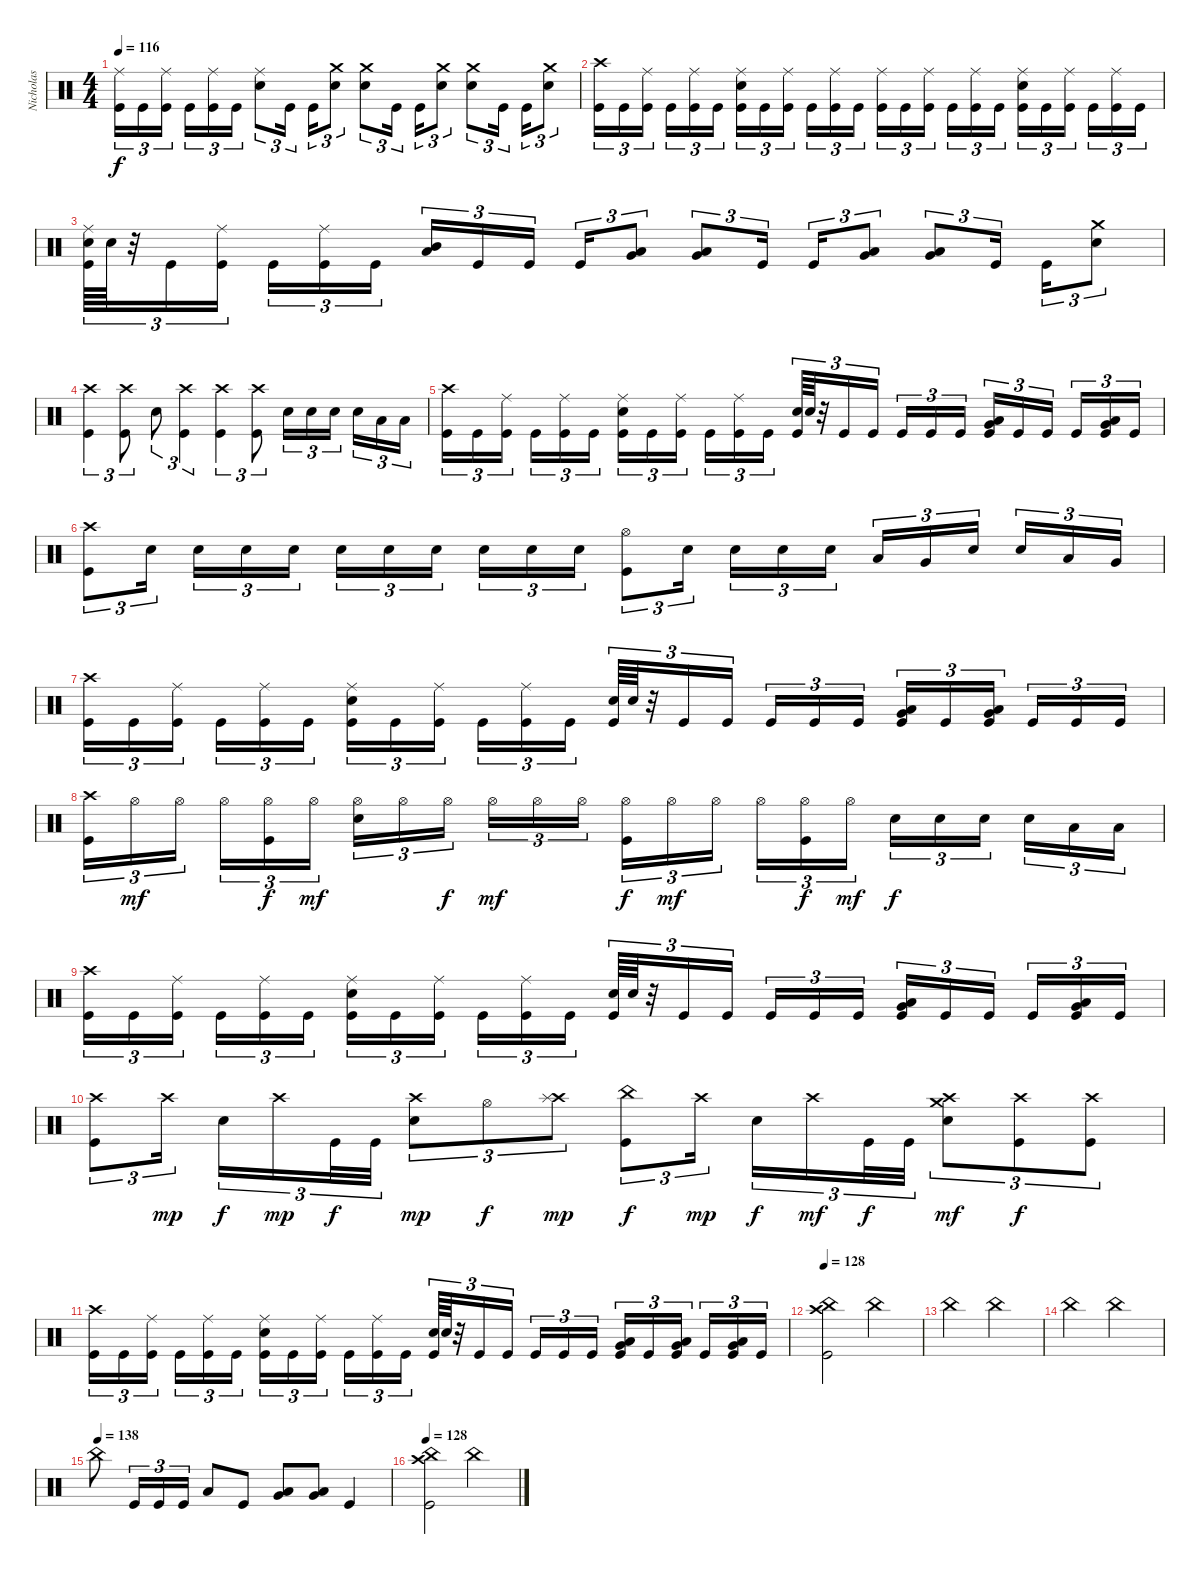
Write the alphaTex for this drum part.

\track ("Nicholas" "Nicholas") {instrument percussion}
\staff {score}
\articulation defaults
\ts (4 4)
\tempo 116
\clef neutral
\ks c
("Ride (middle)" "Kick (hit)").16{tu (3 2) dy f} "Kick (hit)".16{tu (3 2)} ("Ride (middle)" "Kick (hit)").16{tu (3 2)} "Kick (hit)".16{tu (3 2)} ("Ride (middle)" "Kick (hit)").16{tu (3 2)} "Kick (hit)".16{tu (3 2)} ("Ride (middle)" "Electric Snare (hit)").8{tu (3 2)} "Kick (hit)".16{tu (3 2)} "Kick (hit)".16{tu (3 2)} ("Crash medium (hit)" "Electric Snare (hit)").8{tu (3 2)} ("Crash medium (hit)" "Electric Snare (hit)").8{tu (3 2)} "Kick (hit)".16{tu (3 2)} "Kick (hit)".16{tu (3 2)} ("Crash medium (hit)" "Electric Snare (hit)").8{tu (3 2)} ("Crash medium (hit)" "Electric Snare (hit)").8{tu (3 2)} "Kick (hit)".16{tu (3 2)} "Kick (hit)".16{tu (3 2)} ("Crash medium (hit)" "Electric Snare (hit)").8{tu (3 2)} |
("Crash high (hit)" "Kick (hit)").16{tu (3 2)} "Kick (hit)".16{tu (3 2)} ("Ride (middle)" "Kick (hit)").16{tu (3 2)} "Kick (hit)".16{tu (3 2)} ("Ride (middle)" "Kick (hit)").16{tu (3 2)} "Kick (hit)".16{tu (3 2)} ("Ride (middle)" "Electric Snare (hit)" "Kick (hit)").16{tu (3 2)} "Kick (hit)".16{tu (3 2)} ("Ride (middle)" "Kick (hit)").16{tu (3 2)} "Kick (hit)".16{tu (3 2)} ("Ride (middle)" "Kick (hit)").16{tu (3 2)} "Kick (hit)".16{tu (3 2)} ("Ride (middle)" "Kick (hit)").16{tu (3 2)} "Kick (hit)".16{tu (3 2)} ("Ride (middle)" "Kick (hit)").16{tu (3 2)} "Kick (hit)".16{tu (3 2)} ("Ride (middle)" "Kick (hit)").16{tu (3 2)} "Kick (hit)".16{tu (3 2)} ("Ride (middle)" "Electric Snare (hit)" "Kick (hit)").16{tu (3 2)} "Kick (hit)".16{tu (3 2)} ("Ride (middle)" "Kick (hit)").16{tu (3 2)} "Kick (hit)".16{tu (3 2)} ("Ride (middle)" "Kick (hit)").16{tu (3 2)} "Kick (hit)".16{tu (3 2)} |
("Ride (middle)" "Electric Snare (hit)" "Kick (hit)").64{tu (3 2)} "Electric Snare (hit)".64{tu (3 2)} r.32{tu (3 2)} "Kick (hit)".16{tu (3 2)} ("Ride (middle)" "Kick (hit)").16{tu (3 2)} "Kick (hit)".16{tu (3 2)} ("Ride (middle)" "Kick (hit)").16{tu (3 2)} "Kick (hit)".16{tu (3 2)} ("Mid Tom (hit)" "Low Tom (hit)").16{tu (3 2) bd 60} "Kick (hit)".16{tu (3 2)} "Kick (hit)".16{tu (3 2)} "Kick (hit)".16{tu (3 2)} ("Low Tom (hit)" "Very Low Tom (hit)").8{tu (3 2) bu 60} ("Low Tom (hit)" "Very Low Tom (hit)").8{tu (3 2) bu 60} "Kick (hit)".16{tu (3 2)} "Kick (hit)".16{tu (3 2)} ("Low Tom (hit)" "Very Low Tom (hit)").8{tu (3 2) bu 60} ("Low Tom (hit)" "Very Low Tom (hit)").8{tu (3 2) bu 60} "Kick (hit)".16{tu (3 2)} "Kick (hit)".16{tu (3 2)} ("Crash medium (hit)" "Electric Snare (hit)").8{tu (3 2)} |
("Crash high (hit)" "Kick (hit)").4{tu (3 2)} ("Crash high (hit)" "Kick (hit)").8{tu (3 2)} "Electric Snare (hit)".8{tu (3 2)} ("Crash high (hit)" "Kick (hit)").4{tu (3 2)} ("Crash high (hit)" "Kick (hit)").4{tu (3 2)} ("Crash high (hit)" "Kick (hit)").8{tu (3 2)} "Electric Snare (hit)".16{tu (3 2)} "Electric Snare (hit)".16{tu (3 2)} "Electric Snare (hit)".16{tu (3 2)} "Electric Snare (hit)".16{tu (3 2)} "Low Tom (hit)".16{tu (3 2)} "Low Tom (hit)".16{tu (3 2)} |
("Crash high (hit)" "Kick (hit)").16{tu (3 2)} "Kick (hit)".16{tu (3 2)} ("Ride (middle)" "Kick (hit)").16{tu (3 2)} "Kick (hit)".16{tu (3 2)} ("Ride (middle)" "Kick (hit)").16{tu (3 2)} "Kick (hit)".16{tu (3 2)} ("Ride (middle)" "Electric Snare (hit)" "Kick (hit)").16{tu (3 2)} "Kick (hit)".16{tu (3 2)} ("Ride (middle)" "Kick (hit)").16{tu (3 2)} "Kick (hit)".16{tu (3 2)} ("Ride (middle)" "Kick (hit)").16{tu (3 2)} "Kick (hit)".16{tu (3 2)} ("Electric Snare (hit)" "Kick (hit)").64{tu (3 2)} "Electric Snare (hit)".64{tu (3 2)} r.32{tu (3 2)} "Kick (hit)".16{tu (3 2)} "Kick (hit)".16{tu (3 2)} "Kick (hit)".16{tu (3 2)} "Kick (hit)".16{tu (3 2)} "Kick (hit)".16{tu (3 2)} ("Low Tom (hit)" "Very Low Tom (hit)" "Kick (hit)").16{tu (3 2) bd 60} "Kick (hit)".16{tu (3 2)} "Kick (hit)".16{tu (3 2)} "Kick (hit)".16{tu (3 2)} ("Low Tom (hit)" "Very Low Tom (hit)" "Kick (hit)").16{tu (3 2) bd 60} "Kick (hit)".16{tu (3 2)} |
("Crash high (hit)" "Kick (hit)").8{tu (3 2)} "Electric Snare (hit)".16{tu (3 2)} "Electric Snare (hit)".16{tu (3 2)} "Electric Snare (hit)".16{tu (3 2)} "Electric Snare (hit)".16{tu (3 2)} "Electric Snare (hit)".16{tu (3 2)} "Electric Snare (hit)".16{tu (3 2)} "Electric Snare (hit)".16{tu (3 2)} "Electric Snare (hit)".16{tu (3 2)} "Electric Snare (hit)".16{tu (3 2)} "Electric Snare (hit)".16{tu (3 2)} ("Hi-Hat (open)" "Kick (hit)").8{tu (3 2)} "Electric Snare (hit)".16{tu (3 2)} "Electric Snare (hit)".16{tu (3 2)} "Electric Snare (hit)".16{tu (3 2)} "Electric Snare (hit)".16{tu (3 2)} "Low Tom (hit)".16{tu (3 2)} "Very Low Tom (hit)".16{tu (3 2)} "Electric Snare (hit)".16{tu (3 2)} "Electric Snare (hit)".16{tu (3 2)} "Low Tom (hit)".16{tu (3 2)} "Very Low Tom (hit)".16{tu (3 2)} |
("Crash high (hit)" "Kick (hit)").16{tu (3 2)} "Kick (hit)".16{tu (3 2)} ("Ride (middle)" "Kick (hit)").16{tu (3 2)} "Kick (hit)".16{tu (3 2)} ("Ride (middle)" "Kick (hit)").16{tu (3 2)} "Kick (hit)".16{tu (3 2)} ("Ride (middle)" "Electric Snare (hit)" "Kick (hit)").16{tu (3 2)} "Kick (hit)".16{tu (3 2)} ("Ride (middle)" "Kick (hit)").16{tu (3 2)} "Kick (hit)".16{tu (3 2)} ("Ride (middle)" "Kick (hit)").16{tu (3 2)} "Kick (hit)".16{tu (3 2)} ("Electric Snare (hit)" "Kick (hit)").64{tu (3 2)} "Electric Snare (hit)".64{tu (3 2)} r.32{tu (3 2)} "Kick (hit)".16{tu (3 2)} "Kick (hit)".16{tu (3 2)} "Kick (hit)".16{tu (3 2)} "Kick (hit)".16{tu (3 2)} "Kick (hit)".16{tu (3 2)} ("Low Tom (hit)" "Very Low Tom (hit)" "Kick (hit)").16{tu (3 2) bd 60} "Kick (hit)".16{tu (3 2)} ("Low Tom (hit)" "Very Low Tom (hit)" "Kick (hit)").16{tu (3 2) bd 60} "Kick (hit)".16{tu (3 2)} "Kick (hit)".16{tu (3 2)} "Kick (hit)".16{tu (3 2)} |
("Crash high (hit)" "Kick (hit)").16{tu (3 2)} "Hi-Hat (open)".16{tu (3 2) dy mf} "Hi-Hat (open)".16{tu (3 2)} "Hi-Hat (open)".16{tu (3 2)} ("Hi-Hat (open)" "Kick (hit)").16{tu (3 2) dy f} "Hi-Hat (open)".16{tu (3 2) dy mf} ("Hi-Hat (open)" "Electric Snare (hit)").16{tu (3 2)} "Hi-Hat (open)".16{tu (3 2)} "Hi-Hat (open)".16{tu (3 2) dy f} "Hi-Hat (open)".16{tu (3 2) dy mf} "Hi-Hat (open)".16{tu (3 2)} "Hi-Hat (open)".16{tu (3 2)} ("Hi-Hat (open)" "Kick (hit)").16{tu (3 2) dy f} "Hi-Hat (open)".16{tu (3 2) dy mf} "Hi-Hat (open)".16{tu (3 2)} "Hi-Hat (open)".16{tu (3 2)} ("Hi-Hat (open)" "Kick (hit)").16{tu (3 2) dy f} "Hi-Hat (open)".16{tu (3 2) dy mf} "Electric Snare (hit)".16{tu (3 2) dy f} "Electric Snare (hit)".16{tu (3 2)} "Electric Snare (hit)".16{tu (3 2)} "Electric Snare (hit)".16{tu (3 2)} "Low Tom (hit)".16{tu (3 2)} "Low Tom (hit)".16{tu (3 2)} |
("Crash high (hit)" "Kick (hit)").16{tu (3 2)} "Kick (hit)".16{tu (3 2)} ("Ride (middle)" "Kick (hit)").16{tu (3 2)} "Kick (hit)".16{tu (3 2)} ("Ride (middle)" "Kick (hit)").16{tu (3 2)} "Kick (hit)".16{tu (3 2)} ("Ride (middle)" "Electric Snare (hit)" "Kick (hit)").16{tu (3 2)} "Kick (hit)".16{tu (3 2)} ("Ride (middle)" "Kick (hit)").16{tu (3 2)} "Kick (hit)".16{tu (3 2)} ("Ride (middle)" "Kick (hit)").16{tu (3 2)} "Kick (hit)".16{tu (3 2)} ("Electric Snare (hit)" "Kick (hit)").64{tu (3 2)} "Electric Snare (hit)".64{tu (3 2)} r.32{tu (3 2)} "Kick (hit)".16{tu (3 2)} "Kick (hit)".16{tu (3 2)} "Kick (hit)".16{tu (3 2)} "Kick (hit)".16{tu (3 2)} "Kick (hit)".16{tu (3 2)} ("Low Tom (hit)" "Very Low Tom (hit)" "Kick (hit)").16{tu (3 2) bd 60} "Kick (hit)".16{tu (3 2)} "Kick (hit)".16{tu (3 2)} "Kick (hit)".16{tu (3 2)} ("Low Tom (hit)" "Very Low Tom (hit)" "Kick (hit)").16{tu (3 2) bd 60} "Kick (hit)".16{tu (3 2)} |
("Crash high (hit)" "Kick (hit)").8{tu (3 2)} "Crash high (hit)".16{tu (3 2) dy mp} "Electric Snare (hit)".16{tu (3 2) dy f} "Crash high (hit)".16{tu (3 2) dy mp} "Kick (hit)".32{tu (3 2) dy f} "Kick (hit)".32{tu (3 2)} ("Crash high (hit)" "Electric Snare (hit)").8{tu (3 2) dy mp} "Hi-Hat (open)".8{tu (3 2) dy f} ("Crash high (hit)" "Splash (hit)").8{tu (3 2) dy mp} ("China (hit)" "Kick (hit)").8{tu (3 2) dy f} "Crash high (hit)".16{tu (3 2) dy mp} "Electric Snare (hit)".16{tu (3 2) dy f} "Crash high (hit)".16{tu (3 2) dy mf} "Kick (hit)".32{tu (3 2) dy f} "Kick (hit)".32{tu (3 2)} ("Crash high (hit)" "Crash medium (hit)" "Electric Snare (hit)").8{tu (3 2) dy mf} ("Crash high (hit)" "Kick (hit)").8{tu (3 2) dy f} ("Crash high (hit)" "Kick (hit)").8{tu (3 2)} |
("Crash high (hit)" "Kick (hit)").16{tu (3 2)} "Kick (hit)".16{tu (3 2)} ("Ride (middle)" "Kick (hit)").16{tu (3 2)} "Kick (hit)".16{tu (3 2)} ("Ride (middle)" "Kick (hit)").16{tu (3 2)} "Kick (hit)".16{tu (3 2)} ("Ride (middle)" "Electric Snare (hit)" "Kick (hit)").16{tu (3 2)} "Kick (hit)".16{tu (3 2)} ("Ride (middle)" "Kick (hit)").16{tu (3 2)} "Kick (hit)".16{tu (3 2)} ("Ride (middle)" "Kick (hit)").16{tu (3 2)} "Kick (hit)".16{tu (3 2)} ("Electric Snare (hit)" "Kick (hit)").64{tu (3 2)} "Electric Snare (hit)".64{tu (3 2)} r.32{tu (3 2)} "Kick (hit)".16{tu (3 2)} "Kick (hit)".16{tu (3 2)} "Kick (hit)".16{tu (3 2)} "Kick (hit)".16{tu (3 2)} "Kick (hit)".16{tu (3 2)} ("Low Tom (hit)" "Very Low Tom (hit)" "Kick (hit)").16{tu (3 2) bd 60} "Kick (hit)".16{tu (3 2)} ("Low Tom (hit)" "Very Low Tom (hit)" "Kick (hit)").16{tu (3 2) bd 60} "Kick (hit)".16{tu (3 2)} ("Low Tom (hit)" "Very Low Tom (hit)" "Kick (hit)").16{tu (3 2) bd 60} "Kick (hit)".16{tu (3 2)} |
\tempo 128
("Crash high (hit)" "China (hit)" "Kick (hit)").2 "China (hit)".2 |
"China (hit)".2 "China (hit)".2 |
"China (hit)".2 "China (hit)".2 |
\tempo (138)
"China (hit)".8 "Kick (hit)".16{tu (3 2)} "Kick (hit)".16{tu (3 2)} "Kick (hit)".16{tu (3 2)} "Low Tom (hit)".8 "Kick (hit)".8 ("Low Tom (hit)" "Very Low Tom (hit)").8{bu 60} ("Low Tom (hit)" "Very Low Tom (hit)").8{bu 60} "Kick (hit)".4 |
\tempo 128
("Crash high (hit)" "China (hit)" "Kick (hit)").2 "China (hit)".2
